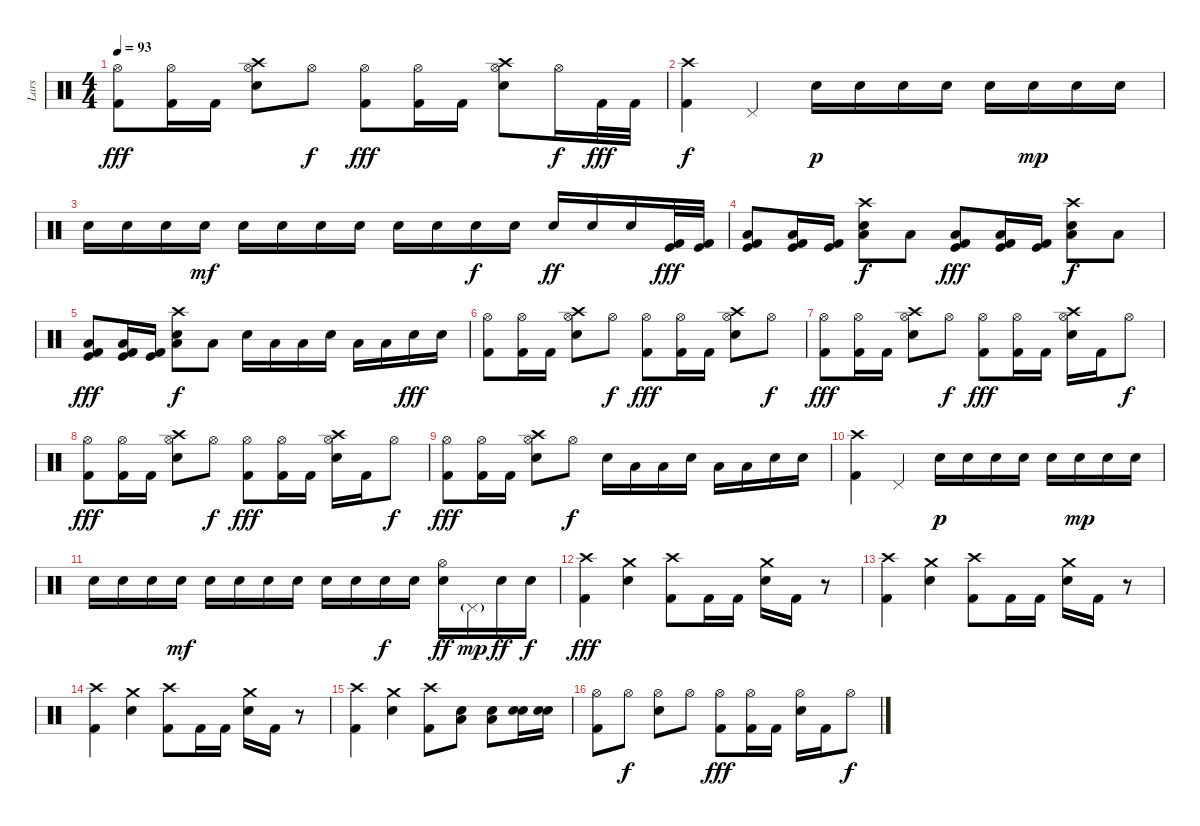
\track ("Lars" "Lars") {instrument percussion}
\staff {score}
\articulation defaults
\ts (4 4)
\tempo 93
\clef neutral
\ks c
("Hi-Hat (open)" "Kick (hit) 2").8{dy fff} ("Hi-Hat (open)" "Kick (hit) 2").16 "Kick (hit) 2".16 ("Crash high (hit)" "Hi-Hat (open)" "Snare (hit) 2").8 "Hi-Hat (open)".8{dy f} ("Hi-Hat (open)" "Kick (hit) 2").8{dy fff} ("Hi-Hat (open)" "Kick (hit) 2").16 "Kick (hit) 2".16 ("Crash high (hit)" "Hi-Hat (open)" "Snare (hit) 2").8 "Hi-Hat (open)".16{dy f} "Kick (hit) 2".32{dy fff} "Kick (hit) 2".32 |
("Crash high (hit)" "Kick (hit) 2").4{dy f} "Pedal Hi-Hat (hit)".4 "Snare (hit) 2".16{dy p} "Snare (hit) 2".16 "Snare (hit) 2".16 "Snare (hit) 2".16 "Snare (hit) 2".16 "Snare (hit) 2".16{dy mp} "Snare (hit) 2".16 "Snare (hit) 2".16 |
"Snare (hit) 2".16 "Snare (hit) 2".16 "Snare (hit) 2".16 "Snare (hit) 2".16{dy mf} "Snare (hit) 2".16 "Snare (hit) 2".16 "Snare (hit) 2".16 "Snare (hit) 2".16 "Snare (hit) 2".16 "Snare (hit) 2".16 "Snare (hit) 2".16{dy f} "Snare (hit) 2".16 "Snare (hit) 2".16{dy ff} "Snare (hit) 2".16 "Snare (hit) 2".16 ("Kick (hit)" "Kick (hit) 2").32{dy fff} ("Kick (hit)" "Kick (hit) 2").32 |
("Low Floor Tom (hit)" "Kick (hit)" "Kick (hit) 2").8 ("Low Floor Tom (hit)" "Kick (hit)" "Kick (hit) 2").16 ("Kick (hit)" "Kick (hit) 2").16 ("Crash high (hit)" "Snare (hit) 2" "Low Floor Tom (hit)").8{dy f} "Low Floor Tom (hit)".8 ("Low Floor Tom (hit)" "Kick (hit)" "Kick (hit) 2").8{dy fff} ("Low Floor Tom (hit)" "Kick (hit)" "Kick (hit) 2").16 ("Kick (hit)" "Kick (hit) 2").16 ("Crash high (hit)" "Snare (hit) 2" "Low Floor Tom (hit)").8{dy f} "Low Floor Tom (hit)".8 |
("Low Floor Tom (hit)" "Kick (hit)" "Kick (hit) 2").8{dy fff} ("Low Floor Tom (hit)" "Kick (hit)" "Kick (hit) 2").16 ("Kick (hit)" "Kick (hit) 2").16 ("Crash high (hit)" "Snare (hit) 2" "Low Floor Tom (hit)").8{dy f} "Low Floor Tom (hit)".8 "Snare (hit) 2".16 "Low Tom (hit)".16 "Low Floor Tom (hit)".16 "Snare (hit) 2".16 "Low Tom (hit)".16 "Low Floor Tom (hit)".16 "Snare (hit) 2".16{dy fff} "Snare (hit) 2".16 |
("Hi-Hat (open)" "Kick (hit) 2").8 ("Hi-Hat (open)" "Kick (hit) 2").16 "Kick (hit) 2".16 ("Crash high (hit)" "Hi-Hat (open)" "Snare (hit) 2").8 "Hi-Hat (open)".8{dy f} ("Hi-Hat (open)" "Kick (hit) 2").8{dy fff} ("Hi-Hat (open)" "Kick (hit) 2").16 "Kick (hit) 2".16 ("Crash high (hit)" "Hi-Hat (open)" "Snare (hit) 2").8 "Hi-Hat (open)".8{dy f} |
("Hi-Hat (open)" "Kick (hit) 2").8{dy fff} ("Hi-Hat (open)" "Kick (hit) 2").16 "Kick (hit) 2".16 ("Crash high (hit)" "Hi-Hat (open)" "Snare (hit) 2").8 "Hi-Hat (open)".8{dy f} ("Hi-Hat (open)" "Kick (hit) 2").8{dy fff} ("Hi-Hat (open)" "Kick (hit) 2").16 "Kick (hit) 2".16 ("Crash high (hit)" "Hi-Hat (open)" "Snare (hit) 2").16 "Kick (hit) 2".16 "Hi-Hat (open)".8{dy f} |
("Hi-Hat (open)" "Kick (hit) 2").8{dy fff} ("Hi-Hat (open)" "Kick (hit) 2").16 "Kick (hit) 2".16 ("Crash high (hit)" "Hi-Hat (open)" "Snare (hit) 2").8 "Hi-Hat (open)".8{dy f} ("Hi-Hat (open)" "Kick (hit) 2").8{dy fff} ("Hi-Hat (open)" "Kick (hit) 2").16 "Kick (hit) 2".16 ("Crash high (hit)" "Hi-Hat (open)" "Snare (hit) 2").16 "Kick (hit) 2".16 "Hi-Hat (open)".8{dy f} |
("Hi-Hat (open)" "Kick (hit) 2").8{dy fff} ("Hi-Hat (open)" "Kick (hit) 2").16 "Kick (hit) 2".16 ("Crash high (hit)" "Hi-Hat (open)" "Snare (hit) 2").8 "Hi-Hat (open)".8{dy f} "Snare (hit) 2".16 "Low Tom (hit)".16 "Low Floor Tom (hit)".16 "Snare (hit) 2".16 "Low Tom (hit)".16 "Low Floor Tom (hit)".16 "Snare (hit) 2".16 "Snare (hit) 2".16 |
("Crash high (hit)" "Kick (hit) 2").4 "Pedal Hi-Hat (hit)".4 "Snare (hit) 2".16{dy p} "Snare (hit) 2".16 "Snare (hit) 2".16 "Snare (hit) 2".16 "Snare (hit) 2".16 "Snare (hit) 2".16{dy mp} "Snare (hit) 2".16 "Snare (hit) 2".16 |
"Snare (hit) 2".16 "Snare (hit) 2".16 "Snare (hit) 2".16 "Snare (hit) 2".16{dy mf} "Snare (hit) 2".16 "Snare (hit) 2".16 "Snare (hit) 2".16 "Snare (hit) 2".16 "Snare (hit) 2".16 "Snare (hit) 2".16 "Snare (hit) 2".16{dy f} "Snare (hit) 2".16 ("Hi-Hat (open)" "Snare (hit) 2").16{dy ff} "Pedal Hi-Hat (hit)"{g}.16{dy mp} "Snare (hit) 2".16{dy ff} "Snare (hit) 2".16{dy f} |
("Crash high (hit)" "Kick (hit) 2").4{dy fff} ("Crash medium (hit)" "Snare (hit) 2").4 ("Crash high (hit)" "Kick (hit) 2").8 "Kick (hit) 2".16 "Kick (hit) 2".16 ("Crash medium (hit)" "Snare (hit) 2").16 "Kick (hit) 2".16 r.8 |
("Crash high (hit)" "Kick (hit) 2").4 ("Crash medium (hit)" "Snare (hit) 2").4 ("Crash high (hit)" "Kick (hit) 2").8 "Kick (hit) 2".16 "Kick (hit) 2".16 ("Crash medium (hit)" "Snare (hit) 2").16 "Kick (hit) 2".16 r.8 |
("Crash high (hit)" "Kick (hit) 2").4 ("Crash medium (hit)" "Snare (hit) 2").4 ("Crash high (hit)" "Kick (hit) 2").8 "Kick (hit) 2".16 "Kick (hit) 2".16 ("Crash medium (hit)" "Snare (hit) 2").16 "Kick (hit) 2".16 r.8 |
("Crash high (hit)" "Kick (hit) 2").4 ("Crash medium (hit)" "Snare (hit) 2").4 ("Crash high (hit)" "Kick (hit) 2").8 ("Low Floor Tom (hit)" "Electric Snare (hit)").8 ("Low Floor Tom (hit)" "Electric Snare (hit)").8 ("Electric Snare (hit)" "Electric Snare (hit)").16 ("Electric Snare (hit)" "Electric Snare (hit)").16 |
("Hi-Hat (open)" "Kick (hit) 2").8 "Hi-Hat (open)".8{dy f} ("Hi-Hat (open)" "Snare (hit) 2").8 "Hi-Hat (open)".8 ("Hi-Hat (open)" "Kick (hit) 2").8{dy fff} ("Hi-Hat (open)" "Kick (hit) 2").16 "Kick (hit) 2".16 ("Hi-Hat (open)" "Snare (hit) 2").16 "Kick (hit) 2".16 "Hi-Hat (open)".8{dy f}
